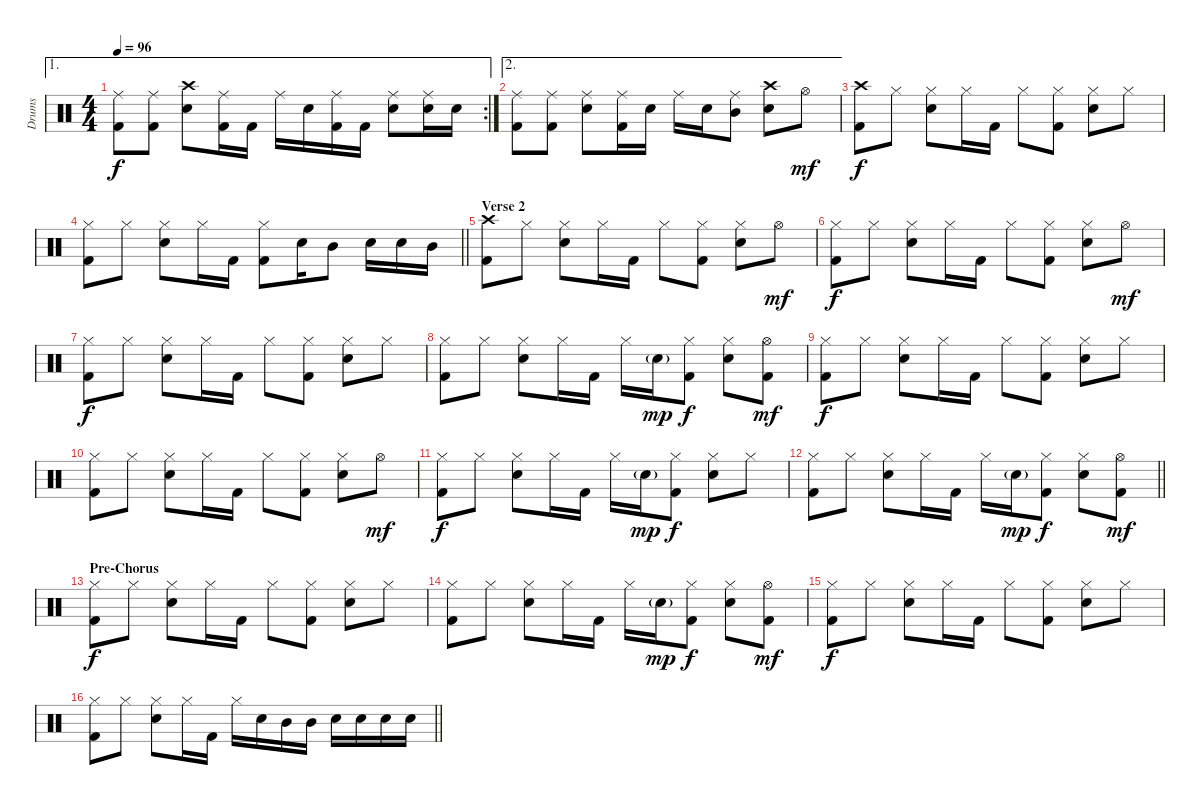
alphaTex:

\track ("Drums" "Drums") {instrument percussion}
\staff {score}
\articulation defaults
\ae 1
\rc 2
\ts (4 4)
\tempo 96
\clef neutral
\ks c
("Ride (middle)" "Kick (hit) 2").8{dy f} ("Ride (middle)" "Kick (hit) 2").8 ("Crash high (hit)" "Electric Snare (hit)").8 ("Ride (middle)" "Kick (hit) 2").16 "Kick (hit) 2".16 "Ride (middle)".16 "Electric Snare (hit)".16 ("Ride (middle)" "Kick (hit) 2").16 "Kick (hit) 2".16 ("Ride (middle)" "Electric Snare (hit)").8 ("Ride (middle)" "Electric Snare (hit)").16 "Electric Snare (hit)".16 |
\ae 2
("Ride (middle)" "Kick (hit) 2").8 ("Ride (middle)" "Kick (hit) 2").8 ("Ride (middle)" "Electric Snare (hit)").8 ("Ride (middle)" "Kick (hit) 2").16 "Electric Snare (hit)".16 "Ride (middle)".16 "Electric Snare (hit)".16 ("Ride (middle)" "Mid Tom (hit)").8 ("Crash high (hit)" "Electric Snare (hit)").8 "Hi-Hat (open)".8{dy mf} |
("Crash high (hit)" "Kick (hit) 2").8{dy f volume 12} "Hi-Hat (closed)".8 ("Hi-Hat (closed)" "Electric Snare (hit)").8 "Hi-Hat (closed)".16 "Kick (hit) 2".16 "Hi-Hat (closed)".8 ("Hi-Hat (closed)" "Kick (hit) 2").8 ("Hi-Hat (closed)" "Electric Snare (hit)").8 "Hi-Hat (closed)".8 |
\barLineRight lightlight
("Hi-Hat (closed)" "Kick (hit) 2").8 "Hi-Hat (closed)".8 ("Hi-Hat (closed)" "Electric Snare (hit)").8 "Hi-Hat (closed)".16 "Kick (hit) 2".16 ("Hi-Hat (closed)" "Kick (hit) 2").8 "Electric Snare (hit)".16 "Mid Tom (hit)".8 "Electric Snare (hit)".16 "Electric Snare (hit)".16 "Mid Tom (hit)".16 |
\section ("" "Verse 2")
("Crash high (hit)" "Kick (hit) 2").8 "Hi-Hat (closed)".8 ("Hi-Hat (closed)" "Electric Snare (hit)").8 "Hi-Hat (closed)".16 "Kick (hit) 2".16 "Hi-Hat (closed)".8 ("Hi-Hat (closed)" "Kick (hit) 2").8 ("Hi-Hat (closed)" "Electric Snare (hit)").8 "Hi-Hat (open)".8{dy mf} |
("Hi-Hat (closed)" "Kick (hit) 2").8{dy f} "Hi-Hat (closed)".8 ("Hi-Hat (closed)" "Electric Snare (hit)").8 "Hi-Hat (closed)".16 "Kick (hit) 2".16 "Hi-Hat (closed)".8 ("Hi-Hat (closed)" "Kick (hit) 2").8 ("Hi-Hat (closed)" "Electric Snare (hit)").8 "Hi-Hat (open)".8{dy mf} |
("Hi-Hat (closed)" "Kick (hit) 2").8{dy f} "Hi-Hat (closed)".8 ("Hi-Hat (closed)" "Electric Snare (hit)").8 "Hi-Hat (closed)".16 "Kick (hit) 2".16 "Hi-Hat (closed)".8 ("Hi-Hat (closed)" "Kick (hit) 2").8 ("Hi-Hat (closed)" "Electric Snare (hit)").8 "Hi-Hat (closed)".8 |
("Hi-Hat (closed)" "Kick (hit) 2").8 "Hi-Hat (closed)".8 ("Hi-Hat (closed)" "Electric Snare (hit)").8 "Hi-Hat (closed)".16 "Kick (hit) 2".16 "Hi-Hat (closed)".16 "Electric Snare (hit)"{g}.16{dy mp} ("Hi-Hat (closed)" "Kick (hit) 2").8{dy f} ("Hi-Hat (closed)" "Electric Snare (hit)").8 ("Hi-Hat (open)" "Kick (hit) 2").8{dy mf} |
("Hi-Hat (closed)" "Kick (hit) 2").8{dy f} "Hi-Hat (closed)".8 ("Hi-Hat (closed)" "Electric Snare (hit)").8 "Hi-Hat (closed)".16 "Kick (hit) 2".16 "Hi-Hat (closed)".8 ("Hi-Hat (closed)" "Kick (hit) 2").8 ("Hi-Hat (closed)" "Electric Snare (hit)").8 "Hi-Hat (closed)".8 |
("Hi-Hat (closed)" "Kick (hit) 2").8 "Hi-Hat (closed)".8 ("Hi-Hat (closed)" "Electric Snare (hit)").8 "Hi-Hat (closed)".16 "Kick (hit) 2".16 "Hi-Hat (closed)".8 ("Hi-Hat (closed)" "Kick (hit) 2").8 ("Hi-Hat (closed)" "Electric Snare (hit)").8 "Hi-Hat (open)".8{dy mf} |
("Hi-Hat (closed)" "Kick (hit) 2").8{dy f} "Hi-Hat (closed)".8 ("Hi-Hat (closed)" "Electric Snare (hit)").8 "Hi-Hat (closed)".16 "Kick (hit) 2".16 "Hi-Hat (closed)".16 "Electric Snare (hit)"{g}.16{dy mp} ("Hi-Hat (closed)" "Kick (hit) 2").8{dy f} ("Hi-Hat (closed)" "Electric Snare (hit)").8 "Hi-Hat (closed)".8 |
\barLineRight lightlight
("Hi-Hat (closed)" "Kick (hit) 2").8 "Hi-Hat (closed)".8 ("Hi-Hat (closed)" "Electric Snare (hit)").8 "Hi-Hat (closed)".16 "Kick (hit) 2".16 "Hi-Hat (closed)".16 "Electric Snare (hit)"{g}.16{dy mp} ("Hi-Hat (closed)" "Kick (hit) 2").8{dy f} ("Hi-Hat (closed)" "Electric Snare (hit)").8 ("Hi-Hat (open)" "Kick (hit) 2").8{dy mf} |
\section ("" "Pre-Chorus")
("Hi-Hat (closed)" "Kick (hit) 2").8{dy f} "Hi-Hat (closed)".8 ("Hi-Hat (closed)" "Electric Snare (hit)").8 "Hi-Hat (closed)".16 "Kick (hit) 2".16 "Hi-Hat (closed)".8 ("Hi-Hat (closed)" "Kick (hit) 2").8 ("Hi-Hat (closed)" "Electric Snare (hit)").8 "Hi-Hat (closed)".8 |
("Hi-Hat (closed)" "Kick (hit) 2").8 "Hi-Hat (closed)".8 ("Hi-Hat (closed)" "Electric Snare (hit)").8 "Hi-Hat (closed)".16 "Kick (hit) 2".16 "Hi-Hat (closed)".16 "Electric Snare (hit)"{g}.16{dy mp} ("Hi-Hat (closed)" "Kick (hit) 2").8{dy f} ("Hi-Hat (closed)" "Electric Snare (hit)").8 ("Hi-Hat (open)" "Kick (hit) 2").8{dy mf} |
("Hi-Hat (closed)" "Kick (hit) 2").8{dy f} "Hi-Hat (closed)".8 ("Hi-Hat (closed)" "Electric Snare (hit)").8 "Hi-Hat (closed)".16 "Kick (hit) 2".16 "Hi-Hat (closed)".8 ("Hi-Hat (closed)" "Kick (hit) 2").8 ("Hi-Hat (closed)" "Electric Snare (hit)").8 "Hi-Hat (closed)".8 |
\barLineRight lightlight
("Hi-Hat (closed)" "Kick (hit) 2").8 "Hi-Hat (closed)".8 ("Hi-Hat (closed)" "Electric Snare (hit)").8 "Hi-Hat (closed)".16 "Kick (hit) 2".16 "Hi-Hat (closed)".16 "Electric Snare (hit)".16{volume 14} "Mid Tom (hit)".16 "Mid Tom (hit)".16 "Electric Snare (hit)".16 "Electric Snare (hit)".16 "Electric Snare (hit)".16 "Electric Snare (hit)".16
